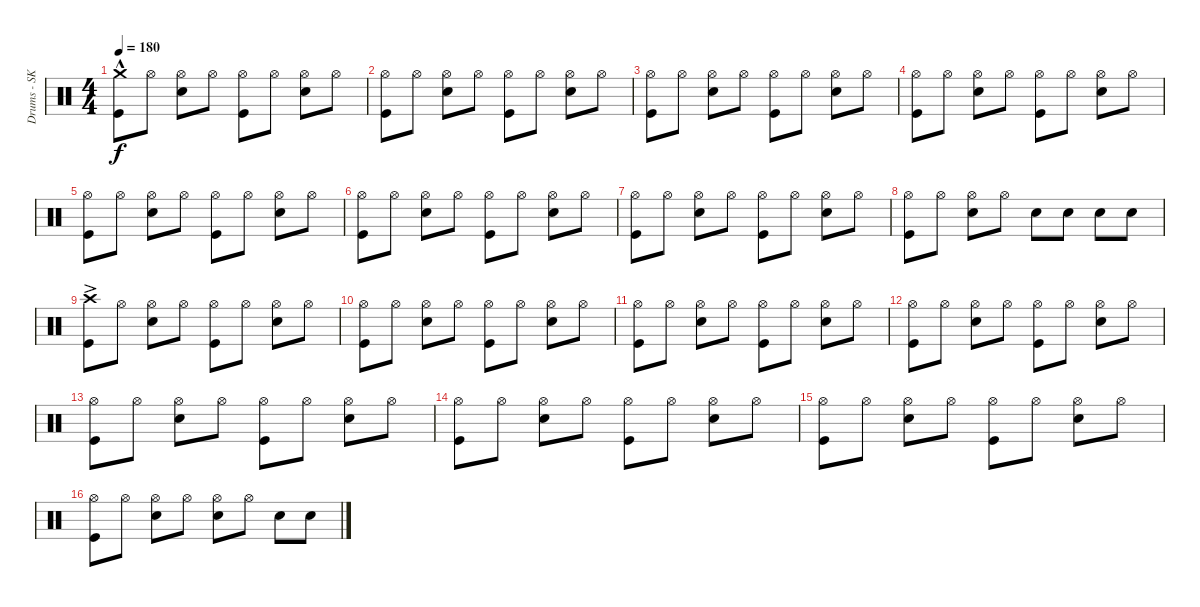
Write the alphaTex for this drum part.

\track ("Drums - SK" "Drums - SK") {instrument percussion}
\staff {score}
\articulation defaults
\ts (4 4)
\tempo 180
\clef neutral
\ks c
("Kick (hit)"{hac} "Crash medium (hit)"{hac}).8{dy f} "Hi-Hat (open)".8 ("Hi-Hat (open)" "Snare (hit) 2").8 "Hi-Hat (open)".8 ("Hi-Hat (open)" "Kick (hit)").8 "Hi-Hat (open)".8 ("Hi-Hat (open)" "Snare (hit) 2").8 "Hi-Hat (open)".8 |
("Hi-Hat (open)" "Kick (hit)").8 "Hi-Hat (open)".8 ("Hi-Hat (open)" "Snare (hit) 2").8 "Hi-Hat (open)".8 ("Hi-Hat (open)" "Kick (hit)").8 "Hi-Hat (open)".8 ("Hi-Hat (open)" "Snare (hit) 2").8 "Hi-Hat (open)".8 |
("Hi-Hat (open)" "Kick (hit)").8 "Hi-Hat (open)".8 ("Hi-Hat (open)" "Snare (hit) 2").8 "Hi-Hat (open)".8 ("Hi-Hat (open)" "Kick (hit)").8 "Hi-Hat (open)".8 ("Hi-Hat (open)" "Snare (hit) 2").8 "Hi-Hat (open)".8 |
("Hi-Hat (open)" "Kick (hit)").8 "Hi-Hat (open)".8 ("Hi-Hat (open)" "Snare (hit) 2").8 "Hi-Hat (open)".8 ("Hi-Hat (open)" "Kick (hit)").8 "Hi-Hat (open)".8 ("Hi-Hat (open)" "Snare (hit) 2").8 "Hi-Hat (open)".8 |
("Kick (hit)" "Hi-Hat (open)").8 "Hi-Hat (open)".8 ("Hi-Hat (open)" "Snare (hit) 2").8 "Hi-Hat (open)".8 ("Hi-Hat (open)" "Kick (hit)").8 "Hi-Hat (open)".8 ("Hi-Hat (open)" "Snare (hit) 2").8 "Hi-Hat (open)".8 |
("Hi-Hat (open)" "Kick (hit)").8 "Hi-Hat (open)".8 ("Hi-Hat (open)" "Snare (hit) 2").8 "Hi-Hat (open)".8 ("Hi-Hat (open)" "Kick (hit)").8 "Hi-Hat (open)".8 ("Hi-Hat (open)" "Snare (hit) 2").8 "Hi-Hat (open)".8 |
("Hi-Hat (open)" "Kick (hit)").8 "Hi-Hat (open)".8 ("Hi-Hat (open)" "Snare (hit) 2").8 "Hi-Hat (open)".8 ("Hi-Hat (open)" "Kick (hit)").8 "Hi-Hat (open)".8 ("Hi-Hat (open)" "Snare (hit) 2").8 "Hi-Hat (open)".8 |
("Hi-Hat (open)" "Kick (hit)").8 "Hi-Hat (open)".8 ("Hi-Hat (open)" "Snare (hit) 2").8 "Hi-Hat (open)".8 "Snare (hit) 2".8 "Snare (hit) 2".8 "Snare (hit) 2".8 "Snare (hit) 2".8 |
("Crash high (hit)"{ac} "Kick (hit)"{ac}).8 "Hi-Hat (open)".8 ("Hi-Hat (open)" "Snare (hit) 2").8 "Hi-Hat (open)".8 ("Hi-Hat (open)" "Kick (hit)").8 "Hi-Hat (open)".8 ("Hi-Hat (open)" "Snare (hit) 2").8 "Hi-Hat (open)".8 |
("Hi-Hat (open)" "Kick (hit)").8 "Hi-Hat (open)".8 ("Hi-Hat (open)" "Snare (hit) 2").8 "Hi-Hat (open)".8 ("Hi-Hat (open)" "Kick (hit)").8 "Hi-Hat (open)".8 ("Hi-Hat (open)" "Snare (hit) 2").8 "Hi-Hat (open)".8 |
("Hi-Hat (open)" "Kick (hit)").8 "Hi-Hat (open)".8 ("Hi-Hat (open)" "Snare (hit) 2").8 "Hi-Hat (open)".8 ("Hi-Hat (open)" "Kick (hit)").8 "Hi-Hat (open)".8 ("Hi-Hat (open)" "Snare (hit) 2").8 "Hi-Hat (open)".8 |
("Hi-Hat (open)" "Kick (hit)").8 "Hi-Hat (open)".8 ("Hi-Hat (open)" "Snare (hit) 2").8 "Hi-Hat (open)".8 ("Hi-Hat (open)" "Kick (hit)").8 "Hi-Hat (open)".8 ("Hi-Hat (open)" "Snare (hit) 2").8 "Hi-Hat (open)".8 |
("Kick (hit)" "Hi-Hat (open)").8 "Hi-Hat (open)".8 ("Hi-Hat (open)" "Snare (hit) 2").8 "Hi-Hat (open)".8 ("Hi-Hat (open)" "Kick (hit)").8 "Hi-Hat (open)".8 ("Hi-Hat (open)" "Snare (hit) 2").8 "Hi-Hat (open)".8 |
("Kick (hit)" "Hi-Hat (open)").8 "Hi-Hat (open)".8 ("Hi-Hat (open)" "Snare (hit) 2").8 "Hi-Hat (open)".8 ("Hi-Hat (open)" "Kick (hit)").8 "Hi-Hat (open)".8 ("Hi-Hat (open)" "Snare (hit) 2").8 "Hi-Hat (open)".8 |
("Hi-Hat (open)" "Kick (hit)").8 "Hi-Hat (open)".8 ("Hi-Hat (open)" "Snare (hit) 2").8 "Hi-Hat (open)".8 ("Hi-Hat (open)" "Kick (hit)").8 "Hi-Hat (open)".8 ("Hi-Hat (open)" "Snare (hit) 2").8 "Hi-Hat (open)".8 |
("Hi-Hat (open)" "Kick (hit)").8 "Hi-Hat (open)".8 ("Snare (hit) 2" "Hi-Hat (open)").8 "Hi-Hat (open)".8 ("Snare (hit) 2" "Hi-Hat (open)").8 "Hi-Hat (open)".8 "Snare (hit) 2".8 "Snare (hit) 2".8
